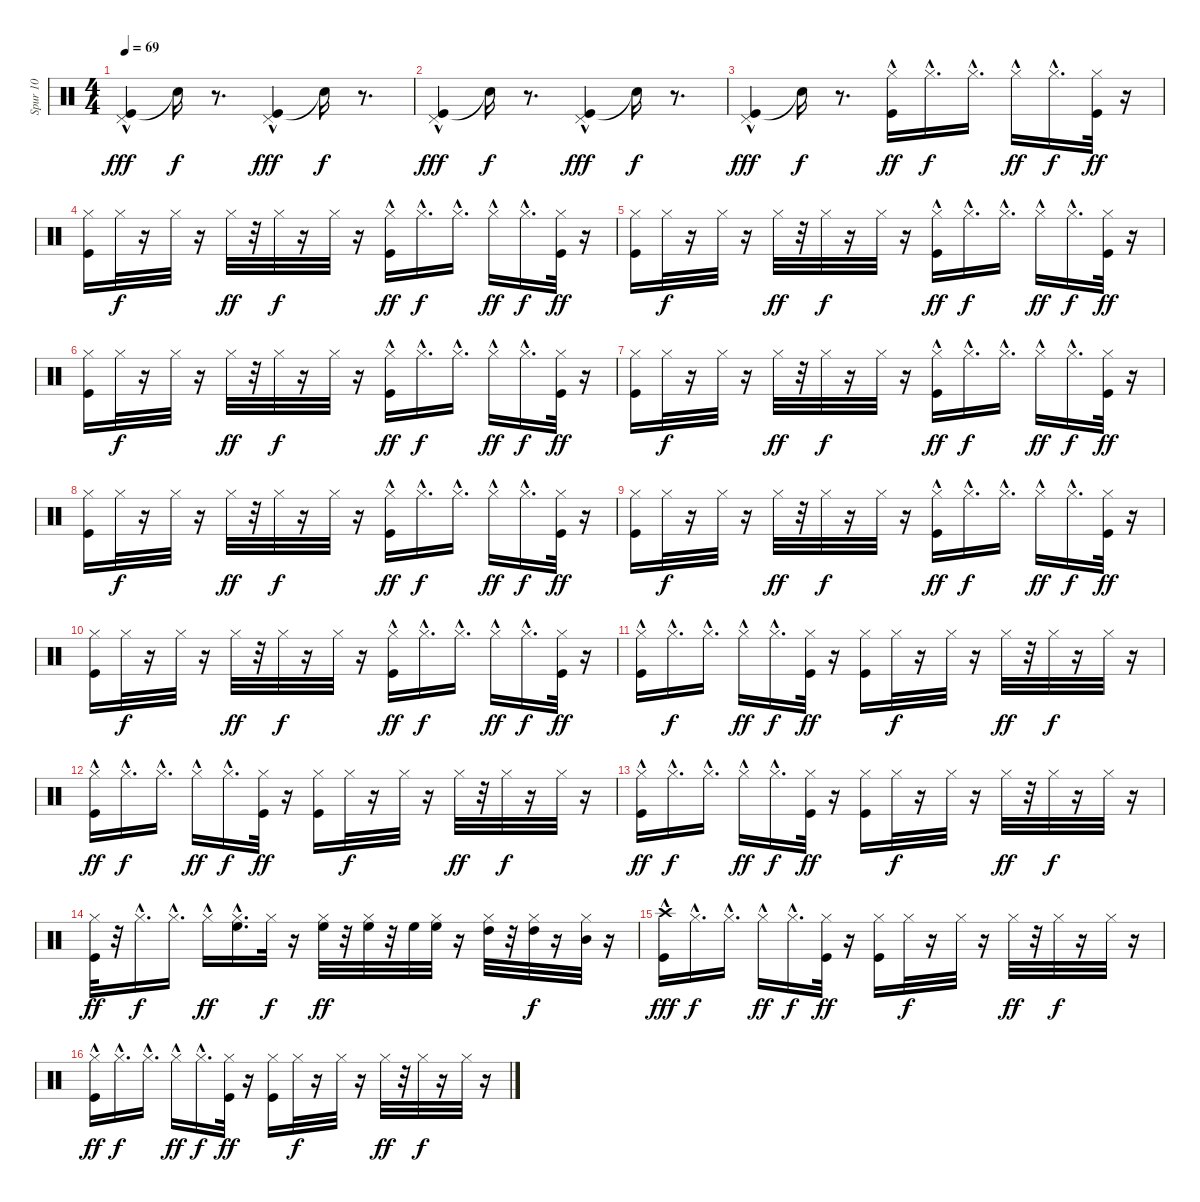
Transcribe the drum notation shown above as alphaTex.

\track ("Spur 10" "Spur 10") {instrument percussion}
\staff {score}
\articulation defaults
\ts (4 4)
\tempo 69
\clef neutral
\ks c
("Kick (hit)"{hac} "Pedal Hi-Hat (hit)").4{dy fff} "Snare (hit)"{t}.16{dy f} r.8{d} ("Kick (hit)"{hac} "Pedal Hi-Hat (hit)").4{dy fff} "Snare (hit)"{t}.16{dy f} r.8{d} |
("Kick (hit)"{hac} "Pedal Hi-Hat (hit)").4{dy fff} "Snare (hit)"{t}.16{dy f} r.8{d} ("Kick (hit)"{hac} "Pedal Hi-Hat (hit)").4{dy fff} "Snare (hit)"{t}.16{dy f} r.8{d} |
("Kick (hit)"{hac} "Pedal Hi-Hat (hit)").4{dy fff} "Snare (hit)"{t}.16{dy f} r.8{d} ("Kick (hit)"{hac} "Hi-Hat (closed)").16{dy ff} "Hi-Hat (closed)"{hac}.16{d dy f} "Hi-Hat (closed)"{hac}.16{d} "Hi-Hat (closed)"{hac}.16{dy ff} "Hi-Hat (closed)"{hac}.16{d dy f} ("Kick (hit)" "Hi-Hat (closed)").32{dy ff} r.16 |
("Kick (hit)" "Hi-Hat (closed)").16 "Hi-Hat (closed)".32{dy f} r.16 "Hi-Hat (closed)".32 r.16 "Hi-Hat (closed)".32{dy ff} r.32 "Hi-Hat (closed)".32{dy f} r.16 "Hi-Hat (closed)".32 r.16 ("Kick (hit)"{hac} "Hi-Hat (closed)").16{dy ff} "Hi-Hat (closed)"{hac}.16{d dy f} "Hi-Hat (closed)"{hac}.16{d} "Hi-Hat (closed)"{hac}.16{dy ff} "Hi-Hat (closed)"{hac}.16{d dy f} ("Kick (hit)" "Hi-Hat (closed)").32{dy ff} r.16 |
("Kick (hit)" "Hi-Hat (closed)").16 "Hi-Hat (closed)".32{dy f} r.16 "Hi-Hat (closed)".32 r.16 "Hi-Hat (closed)".32{dy ff} r.32 "Hi-Hat (closed)".32{dy f} r.16 "Hi-Hat (closed)".32 r.16 ("Kick (hit)"{hac} "Hi-Hat (closed)").16{dy ff} "Hi-Hat (closed)"{hac}.16{d dy f} "Hi-Hat (closed)"{hac}.16{d} "Hi-Hat (closed)"{hac}.16{dy ff} "Hi-Hat (closed)"{hac}.16{d dy f} ("Kick (hit)" "Hi-Hat (closed)").32{dy ff} r.16 |
("Kick (hit)" "Hi-Hat (closed)").16 "Hi-Hat (closed)".32{dy f} r.16 "Hi-Hat (closed)".32 r.16 "Hi-Hat (closed)".32{dy ff} r.32 "Hi-Hat (closed)".32{dy f} r.16 "Hi-Hat (closed)".32 r.16 ("Kick (hit)"{hac} "Hi-Hat (closed)").16{dy ff} "Hi-Hat (closed)"{hac}.16{d dy f} "Hi-Hat (closed)"{hac}.16{d} "Hi-Hat (closed)"{hac}.16{dy ff} "Hi-Hat (closed)"{hac}.16{d dy f} ("Kick (hit)" "Hi-Hat (closed)").32{dy ff} r.16 |
("Kick (hit)" "Hi-Hat (closed)").16 "Hi-Hat (closed)".32{dy f} r.16 "Hi-Hat (closed)".32 r.16 "Hi-Hat (closed)".32{dy ff} r.32 "Hi-Hat (closed)".32{dy f} r.16 "Hi-Hat (closed)".32 r.16 ("Kick (hit)"{hac} "Hi-Hat (closed)").16{dy ff} "Hi-Hat (closed)"{hac}.16{d dy f} "Hi-Hat (closed)"{hac}.16{d} "Hi-Hat (closed)"{hac}.16{dy ff} "Hi-Hat (closed)"{hac}.16{d dy f} ("Kick (hit)" "Hi-Hat (closed)").32{dy ff} r.16 |
("Kick (hit)" "Hi-Hat (closed)").16 "Hi-Hat (closed)".32{dy f} r.16 "Hi-Hat (closed)".32 r.16 "Hi-Hat (closed)".32{dy ff} r.32 "Hi-Hat (closed)".32{dy f} r.16 "Hi-Hat (closed)".32 r.16 ("Kick (hit)"{hac} "Hi-Hat (closed)").16{dy ff} "Hi-Hat (closed)"{hac}.16{d dy f} "Hi-Hat (closed)"{hac}.16{d} "Hi-Hat (closed)"{hac}.16{dy ff} "Hi-Hat (closed)"{hac}.16{d dy f} ("Kick (hit)" "Hi-Hat (closed)").32{dy ff} r.16 |
("Kick (hit)" "Hi-Hat (closed)").16 "Hi-Hat (closed)".32{dy f} r.16 "Hi-Hat (closed)".32 r.16 "Hi-Hat (closed)".32{dy ff} r.32 "Hi-Hat (closed)".32{dy f} r.16 "Hi-Hat (closed)".32 r.16 ("Kick (hit)"{hac} "Hi-Hat (closed)").16{dy ff} "Hi-Hat (closed)"{hac}.16{d dy f} "Hi-Hat (closed)"{hac}.16{d} "Hi-Hat (closed)"{hac}.16{dy ff} "Hi-Hat (closed)"{hac}.16{d dy f} ("Kick (hit)" "Hi-Hat (closed)").32{dy ff} r.16 |
("Kick (hit)" "Hi-Hat (closed)").16 "Hi-Hat (closed)".32{dy f} r.16 "Hi-Hat (closed)".32 r.16 "Hi-Hat (closed)".32{dy ff} r.32 "Hi-Hat (closed)".32{dy f} r.16 "Hi-Hat (closed)".32 r.16 ("Kick (hit)"{hac} "Hi-Hat (closed)").16{dy ff} "Hi-Hat (closed)"{hac}.16{d dy f} "Hi-Hat (closed)"{hac}.16{d} "Hi-Hat (closed)"{hac}.16{dy ff} "Hi-Hat (closed)"{hac}.16{d dy f} ("Kick (hit)" "Hi-Hat (closed)").32{dy ff} r.16 |
("Kick (hit)"{hac} "Hi-Hat (closed)").16 "Hi-Hat (closed)"{hac}.16{d dy f} "Hi-Hat (closed)"{hac}.16{d} "Hi-Hat (closed)"{hac}.16{dy ff} "Hi-Hat (closed)"{hac}.16{d dy f} ("Kick (hit)" "Hi-Hat (closed)").32{dy ff} r.16 ("Kick (hit)" "Hi-Hat (closed)").16 "Hi-Hat (closed)".32{dy f} r.16 "Hi-Hat (closed)".32 r.16 "Hi-Hat (closed)".32{dy ff} r.32 "Hi-Hat (closed)".32{dy f} r.16 "Hi-Hat (closed)".32 r.16 |
("Kick (hit)"{hac} "Hi-Hat (closed)").16{dy ff} "Hi-Hat (closed)"{hac}.16{d dy f} "Hi-Hat (closed)"{hac}.16{d} "Hi-Hat (closed)"{hac}.16{dy ff} "Hi-Hat (closed)"{hac}.16{d dy f} ("Kick (hit)" "Hi-Hat (closed)").32{dy ff} r.16 ("Kick (hit)" "Hi-Hat (closed)").16 "Hi-Hat (closed)".32{dy f} r.16 "Hi-Hat (closed)".32 r.16 "Hi-Hat (closed)".32{dy ff} r.32 "Hi-Hat (closed)".32{dy f} r.16 "Hi-Hat (closed)".32 r.16 |
("Kick (hit)"{hac} "Hi-Hat (closed)").16{dy ff} "Hi-Hat (closed)"{hac}.16{d dy f} "Hi-Hat (closed)"{hac}.16{d} "Hi-Hat (closed)"{hac}.16{dy ff} "Hi-Hat (closed)"{hac}.16{d dy f} ("Kick (hit)" "Hi-Hat (closed)").32{dy ff} r.16 ("Kick (hit)" "Hi-Hat (closed)").16 "Hi-Hat (closed)".32{dy f} r.16 "Hi-Hat (closed)".32 r.16 "Hi-Hat (closed)".32{dy ff} r.32 "Hi-Hat (closed)".32{dy f} r.16 "Hi-Hat (closed)".32 r.16 |
("Kick (hit)" "Hi-Hat (closed)").32{dy ff} r.32 "Hi-Hat (closed)"{hac}.16{d dy f} "Hi-Hat (closed)"{hac}.16{d} "Hi-Hat (closed)"{hac}.16{dy ff} ("Hi-Hat (closed)"{hac} "High Floor Tom (hit)").16{d} "Hi-Hat (closed)".32{dy f} r.16 ("Hi-Hat (closed)" "High Floor Tom (hit)").32{dy ff} r.32 ("Hi-Hat (closed)" "High Floor Tom (hit)").32 r.32 "High Floor Tom (hit)".32 ("Hi-Hat (closed)" "High Floor Tom (hit)").32 r.16 ("Hi-Hat (closed)" "High Tom (hit)").32 r.32 ("Hi-Hat (closed)" "High Tom (hit)").32{dy f} r.16 ("Hi-Hat (closed)" "Mid Tom (hit)").32 r.16 |
("Kick (hit)"{hac} "Crash high (hit)").16{dy fff} "Hi-Hat (closed)"{hac}.16{d dy f} "Hi-Hat (closed)"{hac}.16{d} "Hi-Hat (closed)"{hac}.16{dy ff} "Hi-Hat (closed)"{hac}.16{d dy f} ("Kick (hit)" "Hi-Hat (closed)").32{dy ff} r.16 ("Kick (hit)" "Hi-Hat (closed)").16 "Hi-Hat (closed)".32{dy f} r.16 "Hi-Hat (closed)".32 r.16 "Hi-Hat (closed)".32{dy ff} r.32 "Hi-Hat (closed)".32{dy f} r.16 "Hi-Hat (closed)".32 r.16 |
("Kick (hit)"{hac} "Hi-Hat (closed)").16{dy ff} "Hi-Hat (closed)"{hac}.16{d dy f} "Hi-Hat (closed)"{hac}.16{d} "Hi-Hat (closed)"{hac}.16{dy ff} "Hi-Hat (closed)"{hac}.16{d dy f} ("Kick (hit)" "Hi-Hat (closed)").32{dy ff} r.16 ("Kick (hit)" "Hi-Hat (closed)").16 "Hi-Hat (closed)".32{dy f} r.16 "Hi-Hat (closed)".32 r.16 "Hi-Hat (closed)".32{dy ff} r.32 "Hi-Hat (closed)".32{dy f} r.16 "Hi-Hat (closed)".32 r.16
